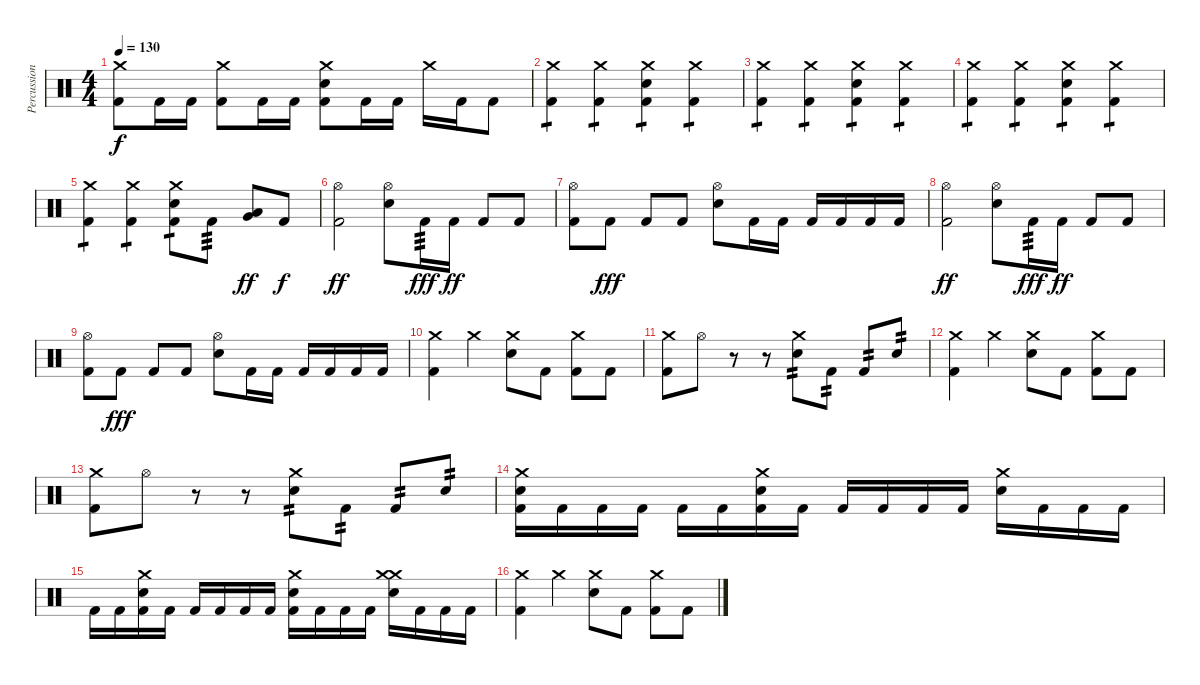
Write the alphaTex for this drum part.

\track ("Percussion" "Percussion") {instrument percussion}
\staff {score}
\articulation defaults
\ts (4 4)
\tempo 130
\clef neutral
\ks c
("Crash medium (hit)" "Kick (hit) 2").8{dy f} "Kick (hit) 2".16 "Kick (hit) 2".16 ("Crash medium (hit)" "Kick (hit) 2").8 "Kick (hit) 2".16 "Kick (hit) 2".16 ("Crash medium (hit)" "Electric Snare (hit)" "Kick (hit) 2").8 "Kick (hit) 2".16 "Kick (hit) 2".16 "Crash medium (hit)".16 "Kick (hit) 2".16 "Kick (hit) 2".8 |
("Crash medium (hit)" "Kick (hit) 2").4{tp 1} ("Crash medium (hit)" "Kick (hit) 2").4{tp 1} ("Crash medium (hit)" "Electric Snare (hit)" "Kick (hit) 2").4{tp 1} ("Crash medium (hit)" "Kick (hit) 2").4{tp 1} |
("Crash medium (hit)" "Kick (hit) 2").4{tp 1} ("Crash medium (hit)" "Kick (hit) 2").4{tp 1} ("Crash medium (hit)" "Electric Snare (hit)" "Kick (hit) 2").4{tp 1} ("Crash medium (hit)" "Kick (hit) 2").4{tp 1} |
("Crash medium (hit)" "Kick (hit) 2").4{tp 1} ("Crash medium (hit)" "Kick (hit) 2").4{tp 1} ("Crash medium (hit)" "Electric Snare (hit)" "Kick (hit) 2").4{tp 1} ("Crash medium (hit)" "Kick (hit) 2").4{tp 1} |
("Crash medium (hit)" "Kick (hit) 2").4{tp 1} ("Crash medium (hit)" "Kick (hit) 2").4{tp 1} ("Crash medium (hit)" "Electric Snare (hit)" "Kick (hit) 2").8{tp 1} "Kick (hit) 2".8{tp 3} ("Very Low Tom (hit)" "Low Tom (hit)").8{dy ff} "Kick (hit) 2".8{dy f} |
("Hi-Hat (open)" "Kick (hit) 2").2{dy ff} ("Hi-Hat (open)" "Electric Snare (hit)").8 "Kick (hit) 2".16{tp 3 dy fff} "Kick (hit) 2".16{dy ff} "Kick (hit) 2".8 "Kick (hit) 2".8 |
("Hi-Hat (open)" "Kick (hit) 2").8 "Kick (hit) 2".8{dy fff} "Kick (hit) 2".8 "Kick (hit) 2".8 ("Hi-Hat (open)" "Electric Snare (hit)").8 "Kick (hit) 2".16 "Kick (hit) 2".16 "Kick (hit) 2".16 "Kick (hit) 2".16 "Kick (hit) 2".16 "Kick (hit) 2".16 |
("Hi-Hat (open)" "Kick (hit) 2").2{dy ff} ("Hi-Hat (open)" "Electric Snare (hit)").8 "Kick (hit) 2".16{tp 3 dy fff} "Kick (hit) 2".16{dy ff} "Kick (hit) 2".8 "Kick (hit) 2".8 |
("Hi-Hat (open)" "Kick (hit) 2").8 "Kick (hit) 2".8{dy fff} "Kick (hit) 2".8 "Kick (hit) 2".8 ("Hi-Hat (open)" "Electric Snare (hit)").8 "Kick (hit) 2".16 "Kick (hit) 2".16 "Kick (hit) 2".16 "Kick (hit) 2".16 "Kick (hit) 2".16 "Kick (hit) 2".16 |
("Crash medium (hit)" "Kick (hit) 2").4 "Crash medium (hit)".4 ("Crash medium (hit)" "Electric Snare (hit)").8 "Kick (hit) 2".8 ("Crash medium (hit)" "Kick (hit) 2").8 "Kick (hit) 2".8 |
("Crash medium (hit)" "Kick (hit) 2").8 "Hi-Hat (open)".8 r.8 r.8 ("Crash medium (hit)" "Electric Snare (hit)").8{tp 2} "Kick (hit) 2".8{tp 2} "Kick (hit) 2".8{tp 2} "Electric Snare (hit)".8{tp 2} |
("Crash medium (hit)" "Kick (hit) 2").4 "Crash medium (hit)".4 ("Crash medium (hit)" "Electric Snare (hit)").8 "Kick (hit) 2".8 ("Crash medium (hit)" "Kick (hit) 2").8 "Kick (hit) 2".8 |
("Crash medium (hit)" "Kick (hit) 2").8 "Hi-Hat (open)".8 r.8 r.8 ("Crash medium (hit)" "Electric Snare (hit)").8{tp 2} "Kick (hit) 2".8{tp 2} "Kick (hit) 2".8{tp 2} "Electric Snare (hit)".8{tp 2} |
("Crash medium (hit)" "Electric Snare (hit)" "Kick (hit) 2").16 "Kick (hit) 2".16 "Kick (hit) 2".16 "Kick (hit) 2".16 "Kick (hit) 2".16 "Kick (hit) 2".16 ("Crash medium (hit)" "Electric Snare (hit)" "Kick (hit) 2").16 "Kick (hit) 2".16 "Kick (hit) 2".16 "Kick (hit) 2".16 "Kick (hit) 2".16 "Kick (hit) 2".16 ("Electric Snare (hit)" "Crash medium (hit)").16 "Kick (hit) 2".16 "Kick (hit) 2".16 "Kick (hit) 2".16 |
"Kick (hit) 2".16 "Kick (hit) 2".16 ("Crash medium (hit)" "Electric Snare (hit)" "Kick (hit) 2").16 "Kick (hit) 2".16 "Kick (hit) 2".16 "Kick (hit) 2".16 "Kick (hit) 2".16 "Kick (hit) 2".16 ("Crash medium (hit)" "Electric Snare (hit)" "Kick (hit) 2").16 "Kick (hit) 2".16 "Kick (hit) 2".16 "Kick (hit) 2".16 ("Crash medium (hit)" "Electric Snare (hit)" "Crash medium (hit)").16 "Kick (hit) 2".16 "Kick (hit) 2".16 "Kick (hit) 2".16 |
("Crash medium (hit)" "Kick (hit) 2").4 "Crash medium (hit)".4 ("Crash medium (hit)" "Electric Snare (hit)").8 "Kick (hit) 2".8 ("Crash medium (hit)" "Kick (hit) 2").8 "Kick (hit) 2".8
